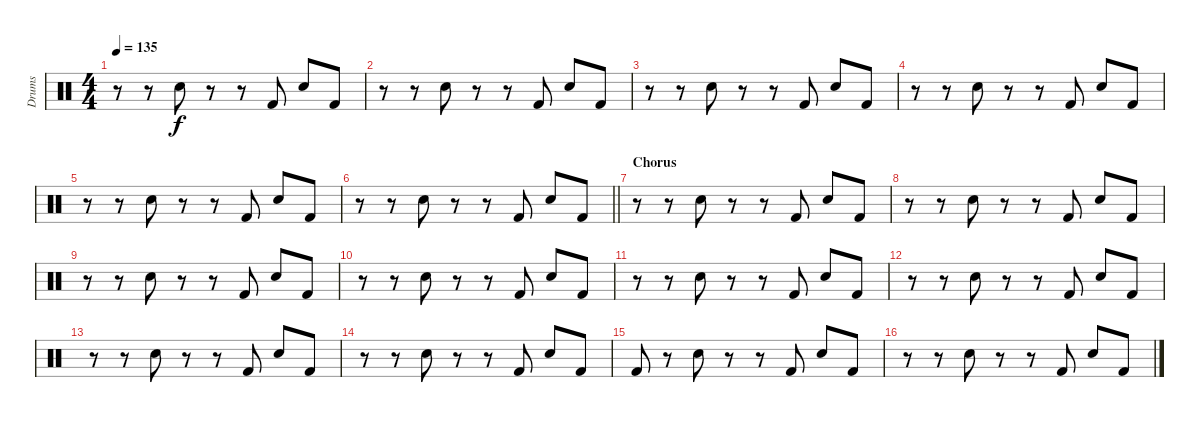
\track ("Drums" "Drums") {instrument percussion}
\staff {score}
\articulation defaults
\ts (4 4)
\tempo 135
\clef neutral
\ks c
r.8{dy f} r.8 "Snare (hit) 2".8 r.8 r.8 "Kick (hit) 2".8 "Snare (hit) 2".8 "Kick (hit) 2".8 |
r.8 r.8 "Snare (hit) 2".8 r.8 r.8 "Kick (hit) 2".8 "Snare (hit) 2".8 "Kick (hit) 2".8 |
r.8 r.8 "Snare (hit) 2".8 r.8 r.8 "Kick (hit) 2".8 "Snare (hit) 2".8 "Kick (hit) 2".8 |
r.8 r.8 "Snare (hit) 2".8 r.8 r.8 "Kick (hit) 2".8 "Snare (hit) 2".8 "Kick (hit) 2".8 |
r.8 r.8 "Snare (hit) 2".8 r.8 r.8 "Kick (hit) 2".8 "Snare (hit) 2".8 "Kick (hit) 2".8 |
\barLineRight lightlight
r.8 r.8 "Snare (hit) 2".8 r.8 r.8 "Kick (hit) 2".8 "Snare (hit) 2".8 "Kick (hit) 2".8 |
\section ("" "Chorus")
r.8 r.8 "Snare (hit) 2".8 r.8 r.8 "Kick (hit) 2".8 "Snare (hit) 2".8 "Kick (hit) 2".8 |
r.8 r.8 "Snare (hit) 2".8 r.8 r.8 "Kick (hit) 2".8 "Snare (hit) 2".8 "Kick (hit) 2".8 |
r.8 r.8 "Snare (hit) 2".8 r.8 r.8 "Kick (hit) 2".8 "Snare (hit) 2".8 "Kick (hit) 2".8 |
r.8 r.8 "Snare (hit) 2".8 r.8 r.8 "Kick (hit) 2".8 "Snare (hit) 2".8 "Kick (hit) 2".8 |
r.8 r.8 "Snare (hit) 2".8 r.8 r.8 "Kick (hit) 2".8 "Snare (hit) 2".8 "Kick (hit) 2".8 |
r.8 r.8 "Snare (hit) 2".8 r.8 r.8 "Kick (hit) 2".8 "Snare (hit) 2".8 "Kick (hit) 2".8 |
r.8 r.8 "Snare (hit) 2".8 r.8 r.8 "Kick (hit) 2".8 "Snare (hit) 2".8 "Kick (hit) 2".8 |
r.8 r.8 "Snare (hit) 2".8 r.8 r.8 "Kick (hit) 2".8 "Snare (hit) 2".8 "Kick (hit) 2".8 |
"Kick (hit) 2".8 r.8 "Snare (hit) 2".8 r.8 r.8 "Kick (hit) 2".8 "Snare (hit) 2".8 "Kick (hit) 2".8 |
r.8 r.8 "Snare (hit) 2".8 r.8 r.8 "Kick (hit) 2".8 "Snare (hit) 2".8 "Kick (hit) 2".8
